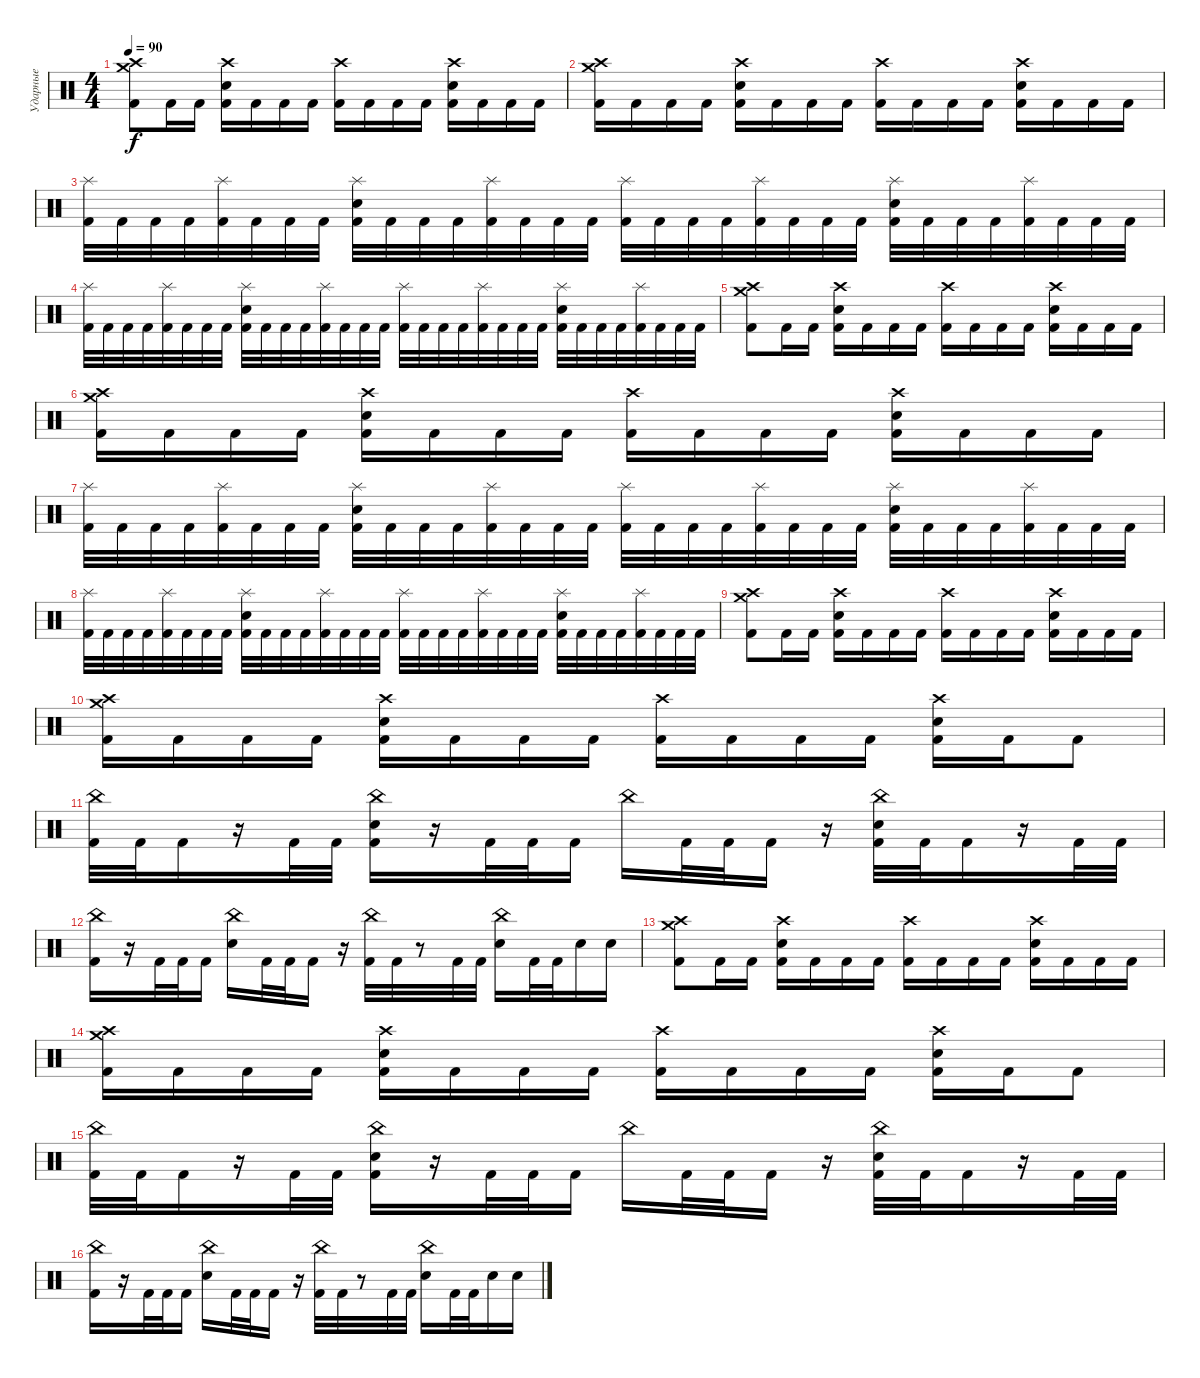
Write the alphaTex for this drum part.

\track ("Ударные" "Ударные") {instrument percussion}
\staff
\articulation defaults
\ts (4 4)
\tempo 90
\clef neutral
\ks c
("Crash high (hit)" "Crash medium (hit)" "Kick (hit) 2").8{dy f} "Kick (hit) 2".16 "Kick (hit) 2".16 ("Crash high (hit)" "Electric Snare (hit)" "Kick (hit) 2").16 "Kick (hit) 2".16 "Kick (hit) 2".16 "Kick (hit) 2".16 ("Crash high (hit)" "Kick (hit) 2").16 "Kick (hit) 2".16 "Kick (hit) 2".16 "Kick (hit) 2".16 ("Crash high (hit)" "Electric Snare (hit)" "Kick (hit) 2").16 "Kick (hit) 2".16 "Kick (hit) 2".16 "Kick (hit) 2".16 |
("Crash high (hit)" "Crash medium (hit)" "Kick (hit) 2").16 "Kick (hit) 2".16 "Kick (hit) 2".16 "Kick (hit) 2".16 ("Crash high (hit)" "Electric Snare (hit)" "Kick (hit) 2").16 "Kick (hit) 2".16 "Kick (hit) 2".16 "Kick (hit) 2".16 ("Crash high (hit)" "Kick (hit) 2").16 "Kick (hit) 2".16 "Kick (hit) 2".16 "Kick (hit) 2".16 ("Crash high (hit)" "Electric Snare (hit)" "Kick (hit) 2").16 "Kick (hit) 2".16 "Kick (hit) 2".16 "Kick (hit) 2".16 |
("Splash (hit)" "Kick (hit) 2").32 "Kick (hit) 2".32 "Kick (hit) 2".32 "Kick (hit) 2".32 ("Splash (hit)" "Kick (hit) 2").32 "Kick (hit) 2".32 "Kick (hit) 2".32 "Kick (hit) 2".32 ("Splash (hit)" "Electric Snare (hit)" "Kick (hit) 2").32 "Kick (hit) 2".32 "Kick (hit) 2".32 "Kick (hit) 2".32 ("Splash (hit)" "Kick (hit) 2").32 "Kick (hit) 2".32 "Kick (hit) 2".32 "Kick (hit) 2".32 ("Splash (hit)" "Kick (hit) 2").32 "Kick (hit) 2".32 "Kick (hit) 2".32 "Kick (hit) 2".32 ("Splash (hit)" "Kick (hit) 2").32 "Kick (hit) 2".32 "Kick (hit) 2".32 "Kick (hit) 2".32 ("Splash (hit)" "Electric Snare (hit)" "Kick (hit) 2").32 "Kick (hit) 2".32 "Kick (hit) 2".32 "Kick (hit) 2".32 ("Splash (hit)" "Kick (hit) 2").32 "Kick (hit) 2".32 "Kick (hit) 2".32 "Kick (hit) 2".32 |
("Splash (hit)" "Kick (hit) 2").32 "Kick (hit) 2".32 "Kick (hit) 2".32 "Kick (hit) 2".32 ("Splash (hit)" "Kick (hit) 2").32 "Kick (hit) 2".32 "Kick (hit) 2".32 "Kick (hit) 2".32 ("Splash (hit)" "Electric Snare (hit)" "Kick (hit) 2").32 "Kick (hit) 2".32 "Kick (hit) 2".32 "Kick (hit) 2".32 ("Splash (hit)" "Kick (hit) 2").32 "Kick (hit) 2".32 "Kick (hit) 2".32 "Kick (hit) 2".32 ("Splash (hit)" "Kick (hit) 2").32 "Kick (hit) 2".32 "Kick (hit) 2".32 "Kick (hit) 2".32 ("Splash (hit)" "Kick (hit) 2").32 "Kick (hit) 2".32 "Kick (hit) 2".32 "Kick (hit) 2".32 ("Splash (hit)" "Electric Snare (hit)" "Kick (hit) 2").32 "Kick (hit) 2".32 "Kick (hit) 2".32 "Kick (hit) 2".32 ("Splash (hit)" "Kick (hit) 2").32 "Kick (hit) 2".32 "Kick (hit) 2".32 "Kick (hit) 2".32 |
("Crash high (hit)" "Crash medium (hit)" "Kick (hit) 2").8 "Kick (hit) 2".16 "Kick (hit) 2".16 ("Crash high (hit)" "Electric Snare (hit)" "Kick (hit) 2").16 "Kick (hit) 2".16 "Kick (hit) 2".16 "Kick (hit) 2".16 ("Crash high (hit)" "Kick (hit) 2").16 "Kick (hit) 2".16 "Kick (hit) 2".16 "Kick (hit) 2".16 ("Crash high (hit)" "Electric Snare (hit)" "Kick (hit) 2").16 "Kick (hit) 2".16 "Kick (hit) 2".16 "Kick (hit) 2".16 |
("Crash high (hit)" "Crash medium (hit)" "Kick (hit) 2").16 "Kick (hit) 2".16 "Kick (hit) 2".16 "Kick (hit) 2".16 ("Crash high (hit)" "Electric Snare (hit)" "Kick (hit) 2").16 "Kick (hit) 2".16 "Kick (hit) 2".16 "Kick (hit) 2".16 ("Crash high (hit)" "Kick (hit) 2").16 "Kick (hit) 2".16 "Kick (hit) 2".16 "Kick (hit) 2".16 ("Crash high (hit)" "Electric Snare (hit)" "Kick (hit) 2").16 "Kick (hit) 2".16 "Kick (hit) 2".16 "Kick (hit) 2".16 |
("Splash (hit)" "Kick (hit) 2").32 "Kick (hit) 2".32 "Kick (hit) 2".32 "Kick (hit) 2".32 ("Splash (hit)" "Kick (hit) 2").32 "Kick (hit) 2".32 "Kick (hit) 2".32 "Kick (hit) 2".32 ("Splash (hit)" "Electric Snare (hit)" "Kick (hit) 2").32 "Kick (hit) 2".32 "Kick (hit) 2".32 "Kick (hit) 2".32 ("Splash (hit)" "Kick (hit) 2").32 "Kick (hit) 2".32 "Kick (hit) 2".32 "Kick (hit) 2".32 ("Splash (hit)" "Kick (hit) 2").32 "Kick (hit) 2".32 "Kick (hit) 2".32 "Kick (hit) 2".32 ("Splash (hit)" "Kick (hit) 2").32 "Kick (hit) 2".32 "Kick (hit) 2".32 "Kick (hit) 2".32 ("Splash (hit)" "Electric Snare (hit)" "Kick (hit) 2").32 "Kick (hit) 2".32 "Kick (hit) 2".32 "Kick (hit) 2".32 ("Splash (hit)" "Kick (hit) 2").32 "Kick (hit) 2".32 "Kick (hit) 2".32 "Kick (hit) 2".32 |
("Splash (hit)" "Kick (hit) 2").32 "Kick (hit) 2".32 "Kick (hit) 2".32 "Kick (hit) 2".32 ("Splash (hit)" "Kick (hit) 2").32 "Kick (hit) 2".32 "Kick (hit) 2".32 "Kick (hit) 2".32 ("Splash (hit)" "Electric Snare (hit)" "Kick (hit) 2").32 "Kick (hit) 2".32 "Kick (hit) 2".32 "Kick (hit) 2".32 ("Splash (hit)" "Kick (hit) 2").32 "Kick (hit) 2".32 "Kick (hit) 2".32 "Kick (hit) 2".32 ("Splash (hit)" "Kick (hit) 2").32 "Kick (hit) 2".32 "Kick (hit) 2".32 "Kick (hit) 2".32 ("Splash (hit)" "Kick (hit) 2").32 "Kick (hit) 2".32 "Kick (hit) 2".32 "Kick (hit) 2".32 ("Splash (hit)" "Electric Snare (hit)" "Kick (hit) 2").32 "Kick (hit) 2".32 "Kick (hit) 2".32 "Kick (hit) 2".32 ("Splash (hit)" "Kick (hit) 2").32 "Kick (hit) 2".32 "Kick (hit) 2".32 "Kick (hit) 2".32 |
("Crash high (hit)" "Crash medium (hit)" "Kick (hit) 2").8 "Kick (hit) 2".16 "Kick (hit) 2".16 ("Crash high (hit)" "Electric Snare (hit)" "Kick (hit) 2").16 "Kick (hit) 2".16 "Kick (hit) 2".16 "Kick (hit) 2".16 ("Crash high (hit)" "Kick (hit) 2").16 "Kick (hit) 2".16 "Kick (hit) 2".16 "Kick (hit) 2".16 ("Crash high (hit)" "Electric Snare (hit)" "Kick (hit) 2").16 "Kick (hit) 2".16 "Kick (hit) 2".16 "Kick (hit) 2".16 |
("Crash high (hit)" "Crash medium (hit)" "Kick (hit) 2").16 "Kick (hit) 2".16 "Kick (hit) 2".16 "Kick (hit) 2".16 ("Crash high (hit)" "Electric Snare (hit)" "Kick (hit) 2").16 "Kick (hit) 2".16 "Kick (hit) 2".16 "Kick (hit) 2".16 ("Crash high (hit)" "Kick (hit) 2").16 "Kick (hit) 2".16 "Kick (hit) 2".16 "Kick (hit) 2".16 ("Crash high (hit)" "Electric Snare (hit)" "Kick (hit) 2").16 "Kick (hit) 2".16 "Kick (hit) 2".8 |
("China (hit)" "Kick (hit) 2").32 "Kick (hit) 2".32 "Kick (hit) 2".16 r.16 "Kick (hit) 2".32 "Kick (hit) 2".32 ("China (hit)" "Electric Snare (hit)" "Kick (hit) 2").16 r.16 "Kick (hit) 2".32 "Kick (hit) 2".32 "Kick (hit) 2".16 "China (hit)".16 "Kick (hit) 2".32 "Kick (hit) 2".32 "Kick (hit) 2".16 r.16 ("China (hit)" "Electric Snare (hit)" "Kick (hit) 2").32 "Kick (hit) 2".32 "Kick (hit) 2".16 r.16 "Kick (hit) 2".32 "Kick (hit) 2".32 |
("China (hit)" "Kick (hit) 2").16 r.16 "Kick (hit) 2".32 "Kick (hit) 2".32 "Kick (hit) 2".16 ("China (hit)" "Electric Snare (hit)").16 "Kick (hit) 2".32 "Kick (hit) 2".32 "Kick (hit) 2".16 r.16 ("China (hit)" "Kick (hit) 2").32 "Kick (hit) 2".32 r.8 "Kick (hit) 2".32 "Kick (hit) 2".32 ("China (hit)" "Electric Snare (hit)").16 "Kick (hit) 2".32 "Kick (hit) 2".32 "Electric Snare (hit)".16 "Electric Snare (hit)".16 |
("Crash high (hit)" "Crash medium (hit)" "Kick (hit) 2").8 "Kick (hit) 2".16 "Kick (hit) 2".16 ("Crash high (hit)" "Electric Snare (hit)" "Kick (hit) 2").16 "Kick (hit) 2".16 "Kick (hit) 2".16 "Kick (hit) 2".16 ("Crash high (hit)" "Kick (hit) 2").16 "Kick (hit) 2".16 "Kick (hit) 2".16 "Kick (hit) 2".16 ("Crash high (hit)" "Electric Snare (hit)" "Kick (hit) 2").16 "Kick (hit) 2".16 "Kick (hit) 2".16 "Kick (hit) 2".16 |
("Crash high (hit)" "Crash medium (hit)" "Kick (hit) 2").16 "Kick (hit) 2".16 "Kick (hit) 2".16 "Kick (hit) 2".16 ("Crash high (hit)" "Electric Snare (hit)" "Kick (hit) 2").16 "Kick (hit) 2".16 "Kick (hit) 2".16 "Kick (hit) 2".16 ("Crash high (hit)" "Kick (hit) 2").16 "Kick (hit) 2".16 "Kick (hit) 2".16 "Kick (hit) 2".16 ("Crash high (hit)" "Electric Snare (hit)" "Kick (hit) 2").16 "Kick (hit) 2".16 "Kick (hit) 2".8 |
("China (hit)" "Kick (hit) 2").32 "Kick (hit) 2".32 "Kick (hit) 2".16 r.16 "Kick (hit) 2".32 "Kick (hit) 2".32 ("China (hit)" "Electric Snare (hit)" "Kick (hit) 2").16 r.16 "Kick (hit) 2".32 "Kick (hit) 2".32 "Kick (hit) 2".16 "China (hit)".16 "Kick (hit) 2".32 "Kick (hit) 2".32 "Kick (hit) 2".16 r.16 ("China (hit)" "Electric Snare (hit)" "Kick (hit) 2").32 "Kick (hit) 2".32 "Kick (hit) 2".16 r.16 "Kick (hit) 2".32 "Kick (hit) 2".32 |
("China (hit)" "Kick (hit) 2").16 r.16 "Kick (hit) 2".32 "Kick (hit) 2".32 "Kick (hit) 2".16 ("China (hit)" "Electric Snare (hit)").16 "Kick (hit) 2".32 "Kick (hit) 2".32 "Kick (hit) 2".16 r.16 ("China (hit)" "Kick (hit) 2").32 "Kick (hit) 2".32 r.8 "Kick (hit) 2".32 "Kick (hit) 2".32 ("China (hit)" "Electric Snare (hit)").16 "Kick (hit) 2".32 "Kick (hit) 2".32 "Electric Snare (hit)".16 "Electric Snare (hit)".16
